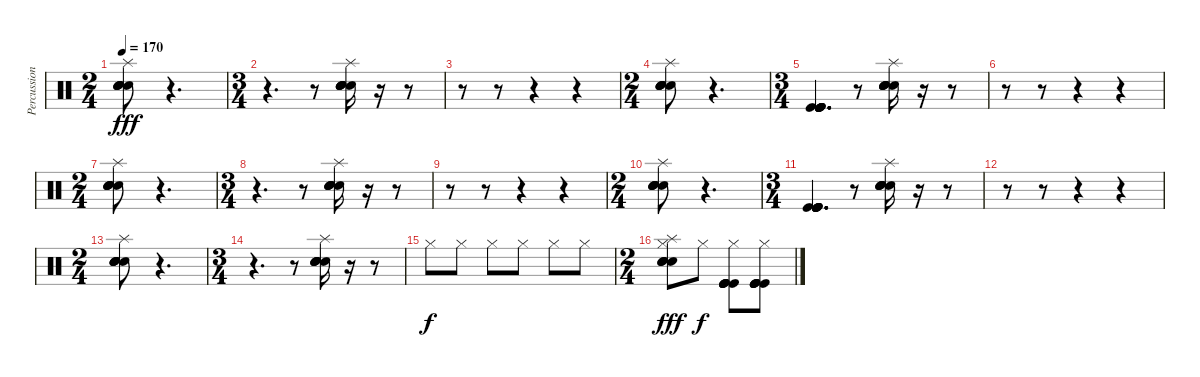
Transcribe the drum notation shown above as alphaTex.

\track ("Percussion" "Percussion") {instrument percussion}
\staff {score}
\articulation defaults
\ts (2 4)
\tempo 170
\clef neutral
\ks c
("Splash (hit)" "Hand Clap (hit)" "Hand Clap (hit)" "Hand Clap (hit)" "Hand Clap (hit)" "Hand Clap (hit)").8{dy fff} r.4{d} |
\ts (3 4)
r.4{d} r.8 ("Splash (hit)" "Hand Clap (hit)" "Hand Clap (hit)" "Hand Clap (hit)" "Hand Clap (hit)" "Hand Clap (hit)").16 r.16 r.8 |
r.8 r.8 r.4 r.4 |
\ts (2 4)
("Splash (hit)" "Hand Clap (hit)" "Hand Clap (hit)" "Hand Clap (hit)" "Hand Clap (hit)" "Hand Clap (hit)").8 r.4{d} |
\ts (3 4)
("Kick (hit)" "Kick (hit)" "Kick (hit)" "Kick (hit)" "Kick (hit)" "Kick (hit)").4{d} r.8 ("Splash (hit)" "Hand Clap (hit)" "Hand Clap (hit)" "Hand Clap (hit)" "Hand Clap (hit)" "Hand Clap (hit)").16 r.16 r.8 |
r.8 r.8 r.4 r.4 |
\ts (2 4)
("Splash (hit)" "Hand Clap (hit)" "Hand Clap (hit)" "Hand Clap (hit)" "Hand Clap (hit)" "Hand Clap (hit)").8 r.4{d} |
\ts (3 4)
r.4{d} r.8 ("Splash (hit)" "Hand Clap (hit)" "Hand Clap (hit)" "Hand Clap (hit)" "Hand Clap (hit)" "Hand Clap (hit)").16 r.16 r.8 |
r.8 r.8 r.4 r.4 |
\ts (2 4)
("Splash (hit)" "Hand Clap (hit)" "Hand Clap (hit)" "Hand Clap (hit)" "Hand Clap (hit)" "Hand Clap (hit)").8 r.4{d} |
\ts (3 4)
("Kick (hit)" "Kick (hit)" "Kick (hit)" "Kick (hit)" "Kick (hit)" "Kick (hit)").4{d} r.8 ("Splash (hit)" "Hand Clap (hit)" "Hand Clap (hit)" "Hand Clap (hit)" "Hand Clap (hit)" "Hand Clap (hit)").16 r.16 r.8 |
r.8 r.8 r.4 r.4 |
\ts (2 4)
("Splash (hit)" "Hand Clap (hit)" "Hand Clap (hit)" "Hand Clap (hit)" "Hand Clap (hit)" "Hand Clap (hit)").8 r.4{d} |
\ts (3 4)
r.4{d} r.8 ("Splash (hit)" "Hand Clap (hit)" "Hand Clap (hit)" "Hand Clap (hit)" "Hand Clap (hit)" "Hand Clap (hit)").16 r.16 r.8 |
"Hi-Hat (closed)".8{dy f} "Hi-Hat (closed)".8 "Hi-Hat (closed)".8 "Hi-Hat (closed)".8 "Hi-Hat (closed)".8 "Hi-Hat (closed)".8 |
\ts (2 4)
("Hi-Hat (closed)" "Splash (hit)" "Hand Clap (hit)" "Hand Clap (hit)" "Hand Clap (hit)" "Hand Clap (hit)").8{dy fff} "Hi-Hat (closed)".8{dy f} ("Hi-Hat (closed)" "Kick (hit)" "Kick (hit)" "Kick (hit)" "Kick (hit)" "Kick (hit)").8 ("Hi-Hat (closed)" "Kick (hit)" "Kick (hit)" "Kick (hit)" "Kick (hit)" "Kick (hit)").8
